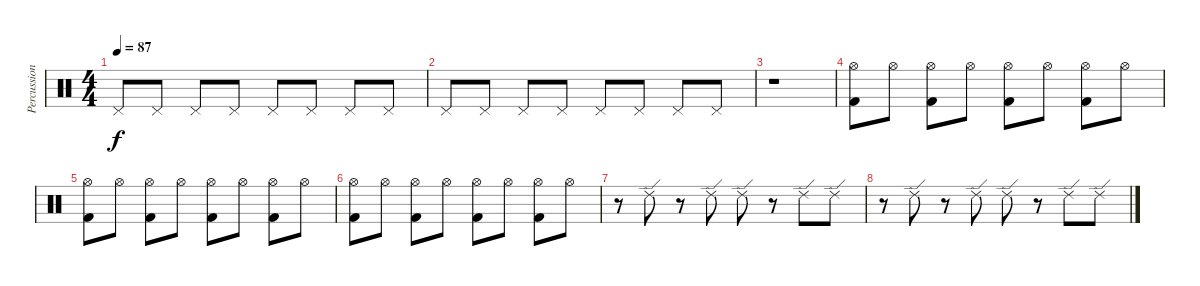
\track ("Percussion" "Percussion") {instrument percussion}
\staff {score}
\articulation defaults
\ts (4 4)
\tempo 87
\clef neutral
\ks c "Pedal Hi-Hat (hit)".8{dy f} "Pedal Hi-Hat (hit)".8 "Pedal Hi-Hat (hit)".8 "Pedal Hi-Hat (hit)".8 "Pedal Hi-Hat (hit)".8 "Pedal Hi-Hat (hit)".8 "Pedal Hi-Hat (hit)".8 "Pedal Hi-Hat (hit)".8
|
"Pedal Hi-Hat (hit)".8 "Pedal Hi-Hat (hit)".8 "Pedal Hi-Hat (hit)".8 "Pedal Hi-Hat (hit)".8 "Pedal Hi-Hat (hit)".8 "Pedal Hi-Hat (hit)".8 "Pedal Hi-Hat (hit)".8 "Pedal Hi-Hat (hit)".8 |
r.1 |
("Hi-Hat (open)" "Kick (hit) 2").8 "Hi-Hat (open)".8 ("Hi-Hat (open)" "Kick (hit) 2").8 "Hi-Hat (open)".8 ("Hi-Hat (open)" "Kick (hit) 2").8 "Hi-Hat (open)".8 ("Hi-Hat (open)" "Kick (hit) 2").8 "Hi-Hat (open)".8 |
("Hi-Hat (open)" "Kick (hit) 2").8 "Hi-Hat (open)".8 ("Hi-Hat (open)" "Kick (hit) 2").8 "Hi-Hat (open)".8 ("Hi-Hat (open)" "Kick (hit) 2").8 "Hi-Hat (open)".8 ("Hi-Hat (open)" "Kick (hit) 2").8 "Hi-Hat (open)".8 |
("Hi-Hat (open)" "Kick (hit) 2").8 "Hi-Hat (open)".8 ("Hi-Hat (open)" "Kick (hit) 2").8 "Hi-Hat (open)".8 ("Hi-Hat (open)" "Kick (hit) 2").8 "Hi-Hat (open)".8 ("Hi-Hat (open)" "Kick (hit) 2").8 "Hi-Hat (open)".8 |
r.8 "Ride (edge) 2".8 r.8 "Ride (edge) 2".8 "Ride (edge) 2".8 r.8 "Ride (edge) 2".8 "Ride (edge) 2".8 |
r.8 "Ride (edge) 2".8 r.8 "Ride (edge) 2".8 "Ride (edge) 2".8 r.8 "Ride (edge) 2".8 "Ride (edge) 2".8
